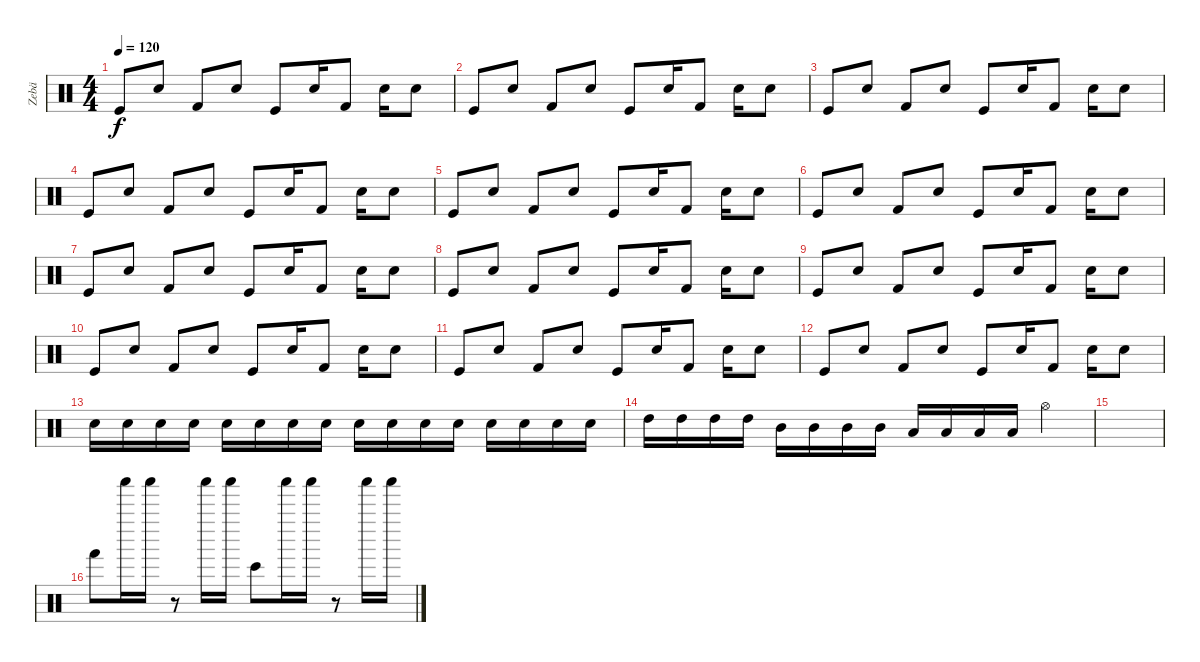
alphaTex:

\track ("Zebä" "Zebä") {instrument percussion}
\staff {score}
\articulation defaults
\ts (4 4)
\tempo 120
\clef neutral
\ks c "Kick (hit)".8{dy f volume 11} "Snare (hit) 2".8 "Kick (hit) 2".8 "Electric Snare (hit)".8 "Kick (hit)".8 "Snare (hit) 2".16 "Kick (hit) 2".8 "Electric Snare (hit)".16 "Snare (hit) 2".8
|
"Kick (hit)".8 "Snare (hit) 2".8 "Kick (hit) 2".8 "Electric Snare (hit)".8 "Kick (hit)".8 "Snare (hit) 2".16 "Kick (hit) 2".8 "Electric Snare (hit)".16 "Snare (hit) 2".8 |
"Kick (hit)".8 "Snare (hit) 2".8 "Kick (hit) 2".8 "Electric Snare (hit)".8 "Kick (hit)".8 "Snare (hit) 2".16 "Kick (hit) 2".8 "Electric Snare (hit)".16 "Snare (hit) 2".8 |
"Kick (hit)".8 "Snare (hit) 2".8 "Kick (hit) 2".8 "Electric Snare (hit)".8 "Kick (hit)".8 "Snare (hit) 2".16 "Kick (hit) 2".8 "Electric Snare (hit)".16 "Snare (hit) 2".8 |
"Kick (hit)".8 "Snare (hit) 2".8 "Kick (hit) 2".8 "Electric Snare (hit)".8 "Kick (hit)".8 "Snare (hit) 2".16 "Kick (hit) 2".8 "Electric Snare (hit)".16 "Snare (hit) 2".8 |
"Kick (hit)".8 "Snare (hit) 2".8 "Kick (hit) 2".8 "Electric Snare (hit)".8 "Kick (hit)".8 "Snare (hit) 2".16 "Kick (hit) 2".8 "Electric Snare (hit)".16 "Snare (hit) 2".8 |
"Kick (hit)".8 "Snare (hit) 2".8 "Kick (hit) 2".8 "Electric Snare (hit)".8 "Kick (hit)".8 "Snare (hit) 2".16 "Kick (hit) 2".8 "Electric Snare (hit)".16 "Snare (hit) 2".8 |
"Kick (hit)".8 "Snare (hit) 2".8 "Kick (hit) 2".8 "Electric Snare (hit)".8 "Kick (hit)".8 "Snare (hit) 2".16 "Kick (hit) 2".8 "Electric Snare (hit)".16 "Snare (hit) 2".8 |
"Kick (hit)".8 "Snare (hit) 2".8 "Kick (hit) 2".8 "Electric Snare (hit)".8 "Kick (hit)".8 "Snare (hit) 2".16 "Kick (hit) 2".8 "Electric Snare (hit)".16 "Snare (hit) 2".8 |
"Kick (hit)".8 "Snare (hit) 2".8 "Kick (hit) 2".8 "Electric Snare (hit)".8 "Kick (hit)".8 "Snare (hit) 2".16 "Kick (hit) 2".8 "Electric Snare (hit)".16 "Snare (hit) 2".8 |
"Kick (hit)".8 "Snare (hit) 2".8 "Kick (hit) 2".8 "Electric Snare (hit)".8 "Kick (hit)".8 "Snare (hit) 2".16 "Kick (hit) 2".8 "Electric Snare (hit)".16 "Snare (hit) 2".8 |
"Kick (hit)".8 "Snare (hit) 2".8 "Kick (hit) 2".8 "Electric Snare (hit)".8 "Kick (hit)".8 "Snare (hit) 2".16 "Kick (hit) 2".8 "Electric Snare (hit)".16 "Snare (hit) 2".8 |
"Snare (hit) 2".16 "Snare (hit) 2".16 "Snare (hit) 2".16 "Snare (hit) 2".16 "Snare (hit) 2".16 "Snare (hit) 2".16 "Snare (hit) 2".16 "Snare (hit) 2".16 "Electric Snare (hit)".16 "Electric Snare (hit)".16 "Electric Snare (hit)".16 "Electric Snare (hit)".16 "Electric Snare (hit)".16 "Electric Snare (hit)".16 "Electric Snare (hit)".16 "Electric Snare (hit)".16 |
"High Tom (hit)".16 "High Tom (hit)".16 "High Tom (hit)".16 "High Tom (hit)".16 "Mid Tom (hit)".16 "Mid Tom (hit)".16 "Mid Tom (hit)".16 "Mid Tom (hit)".16 "Low Tom (hit)".16 "Low Tom (hit)".16 "Low Tom (hit)".16 "Low Tom (hit)".16 "Hi-Hat (open)".4 |
|
"Hand (hit)".8 "Shaker (hit)".16 "Shaker (hit)".16 r.8 "Shaker (hit)".16 "Shaker (hit)".16 "Bongo High (hit)".8 "Shaker (hit)".16 "Shaker (hit)".16 r.8 "Shaker (hit)".16 "Shaker (hit)".16
